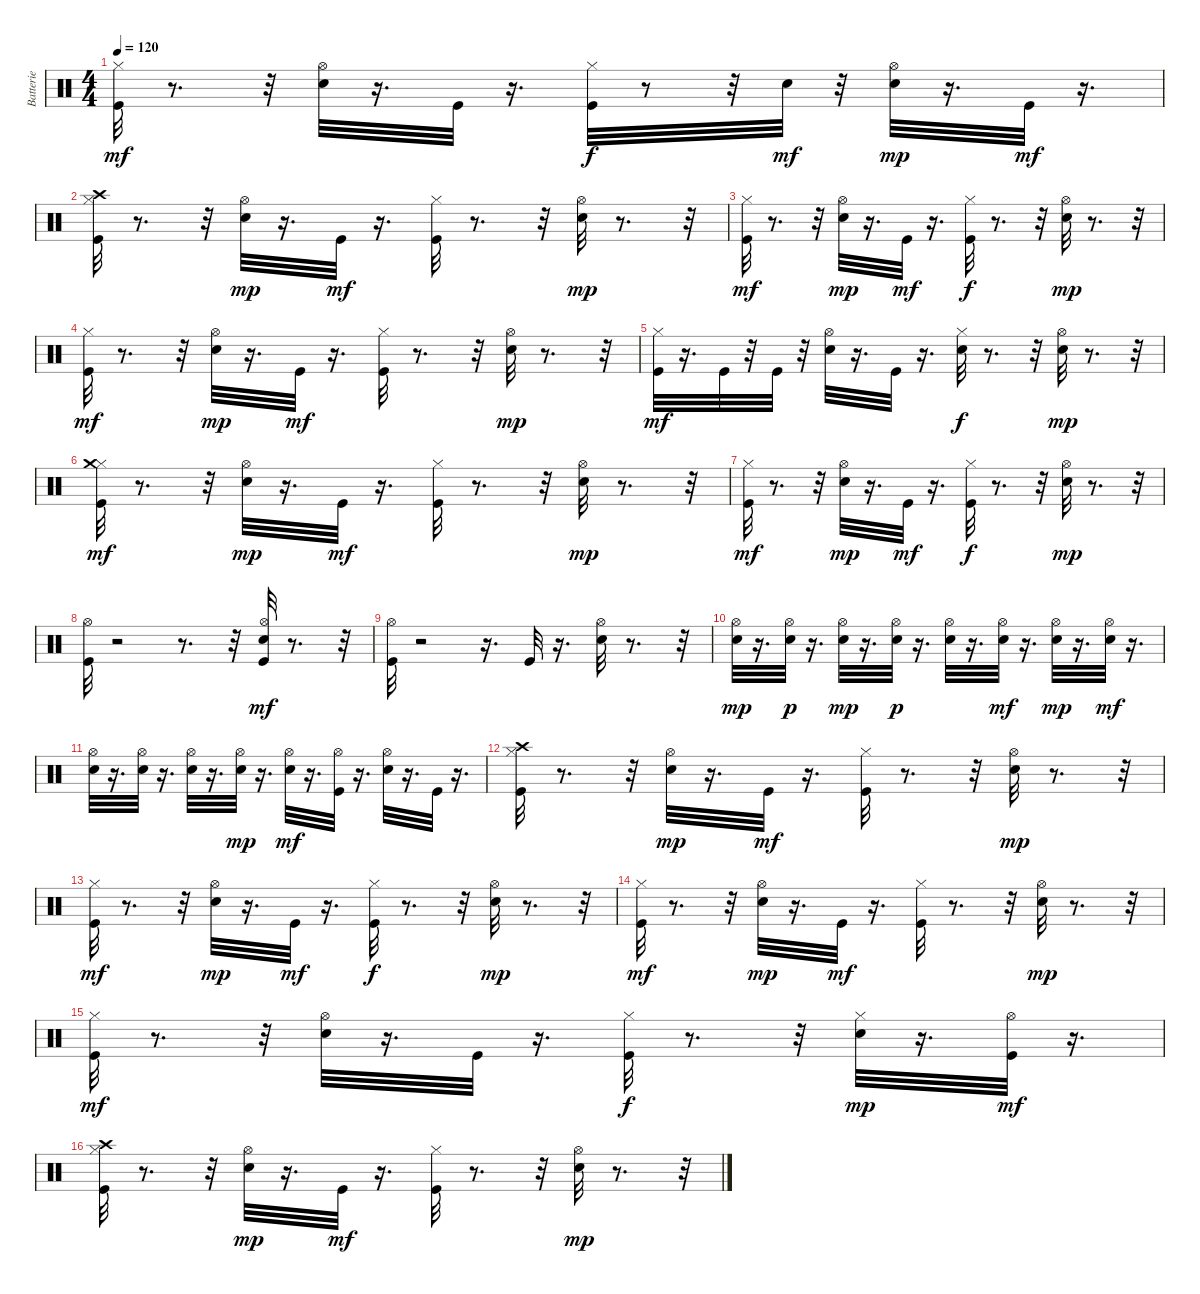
\track ("Batterie" "Batterie") {instrument percussion}
\staff {score}
\articulation defaults
\ts (4 4)
\tempo 120
\clef neutral
\ks c
("Hi-Hat (closed)" "Kick (hit)").32{dy mf} r.8{d} r.32 ("Hi-Hat (open)" "Electric Snare (hit)").32 r.16{d} "Kick (hit)".32 r.16{d} ("Hi-Hat (closed)" "Kick (hit)").32{dy f} r.8 r.32 "Electric Snare (hit)".32{dy mf} r.32 ("Hi-Hat (open)" "Electric Snare (hit)").32{dy mp} r.16{d} "Kick (hit)".32{dy mf} r.16{d} |
("Crash high (hit)" "Hi-Hat (closed)" "Kick (hit)").32 r.8{d} r.32 ("Hi-Hat (open)" "Electric Snare (hit)").32{dy mp} r.16{d} "Kick (hit)".32{dy mf} r.16{d} ("Hi-Hat (closed)" "Kick (hit)").32 r.8{d} r.32 ("Hi-Hat (open)" "Electric Snare (hit)").32{dy mp} r.8{d} r.32 |
("Hi-Hat (closed)" "Kick (hit)").32{dy mf} r.8{d} r.32 ("Hi-Hat (open)" "Electric Snare (hit)").32{dy mp} r.16{d} "Kick (hit)".32{dy mf} r.16{d} ("Hi-Hat (closed)" "Kick (hit)").32{dy f} r.8{d} r.32 ("Hi-Hat (open)" "Electric Snare (hit)").32{dy mp} r.8{d} r.32 |
("Hi-Hat (closed)" "Kick (hit)").32{dy mf} r.8{d} r.32 ("Hi-Hat (open)" "Electric Snare (hit)").32{dy mp} r.16{d} "Kick (hit)".32{dy mf} r.16{d} ("Hi-Hat (closed)" "Kick (hit)").32 r.8{d} r.32 ("Hi-Hat (open)" "Electric Snare (hit)").32{dy mp} r.8{d} r.32 |
("Hi-Hat (closed)" "Kick (hit)").32{dy mf} r.16{d} "Kick (hit)".32 r.32 "Kick (hit)".32 r.32 ("Hi-Hat (open)" "Electric Snare (hit)").32 r.16{d} "Kick (hit)".32 r.16{d} ("Hi-Hat (closed)" "Electric Snare (hit)").32{dy f} r.8{d} r.32 ("Hi-Hat (open)" "Electric Snare (hit)").32{dy mp} r.8{d} r.32 |
("Hi-Hat (closed)" "Kick (hit)" "Crash medium (hit)").32{dy mf} r.8{d} r.32 ("Hi-Hat (open)" "Electric Snare (hit)").32{dy mp} r.16{d} "Kick (hit)".32{dy mf} r.16{d} ("Hi-Hat (closed)" "Kick (hit)").32 r.8{d} r.32 ("Hi-Hat (open)" "Electric Snare (hit)").32{dy mp} r.8{d} r.32 |
("Hi-Hat (closed)" "Kick (hit)").32{dy mf} r.8{d} r.32 ("Hi-Hat (open)" "Electric Snare (hit)").32{dy mp} r.16{d} "Kick (hit)".32{dy mf} r.16{d} ("Hi-Hat (closed)" "Kick (hit)").32{dy f} r.8{d} r.32 ("Hi-Hat (open)" "Electric Snare (hit)").32{dy mp} r.8{d} r.32 |
("Hi-Hat (open)" "Kick (hit)").32 r.2 r.8{d} r.32 ("Hi-Hat (open)" "Electric Snare (hit)" "Kick (hit)").32{dy mf} r.8{d} r.32 |
("Hi-Hat (open)" "Kick (hit)").32 r.2 r.16{d} "Kick (hit)".32 r.16{d} ("Hi-Hat (open)" "Electric Snare (hit)").32 r.8{d} r.32 |
("Hi-Hat (open)" "Electric Snare (hit)").32{dy mp} r.16{d} ("Hi-Hat (open)" "Electric Snare (hit)").32{dy p} r.16{d} ("Hi-Hat (open)" "Electric Snare (hit)").32{dy mp} r.16{d} ("Hi-Hat (open)" "Electric Snare (hit)").32{dy p} r.16{d} ("Hi-Hat (open)" "Electric Snare (hit)").32 r.16{d} ("Hi-Hat (open)" "Electric Snare (hit)").32{dy mf} r.16{d} ("Hi-Hat (open)" "Electric Snare (hit)").32{dy mp} r.16{d} ("Hi-Hat (open)" "Electric Snare (hit)").32{dy mf} r.16{d} |
("Hi-Hat (open)" "Electric Snare (hit)").32 r.16{d} ("Hi-Hat (open)" "Electric Snare (hit)").32 r.16{d} ("Hi-Hat (open)" "Electric Snare (hit)").32 r.16{d} ("Hi-Hat (open)" "Electric Snare (hit)").32{dy mp} r.16{d} ("Hi-Hat (open)" "Electric Snare (hit)").32{dy mf} r.16{d} ("Hi-Hat (open)" "Kick (hit)").32 r.16{d} ("Hi-Hat (open)" "Electric Snare (hit)").32 r.16{d} "Kick (hit)".32 r.16{d} |
("Crash high (hit)" "Hi-Hat (closed)" "Kick (hit)").32 r.8{d} r.32 ("Hi-Hat (open)" "Electric Snare (hit)").32{dy mp} r.16{d} "Kick (hit)".32{dy mf} r.16{d} ("Hi-Hat (closed)" "Kick (hit)").32 r.8{d} r.32 ("Hi-Hat (open)" "Electric Snare (hit)").32{dy mp} r.8{d} r.32 |
("Hi-Hat (closed)" "Kick (hit)").32{dy mf} r.8{d} r.32 ("Hi-Hat (open)" "Electric Snare (hit)").32{dy mp} r.16{d} "Kick (hit)".32{dy mf} r.16{d} ("Hi-Hat (closed)" "Kick (hit)").32{dy f} r.8{d} r.32 ("Hi-Hat (open)" "Electric Snare (hit)").32{dy mp} r.8{d} r.32 |
("Hi-Hat (closed)" "Kick (hit)").32{dy mf} r.8{d} r.32 ("Hi-Hat (open)" "Electric Snare (hit)").32{dy mp} r.16{d} "Kick (hit)".32{dy mf} r.16{d} ("Hi-Hat (closed)" "Kick (hit)").32 r.8{d} r.32 ("Hi-Hat (open)" "Electric Snare (hit)").32{dy mp} r.8{d} r.32 |
("Hi-Hat (closed)" "Kick (hit)").32{dy mf} r.8{d} r.32 ("Hi-Hat (open)" "Electric Snare (hit)").32 r.16{d} "Kick (hit)".32 r.16{d} ("Hi-Hat (closed)" "Kick (hit)").32{dy f} r.8{d} r.32 ("Hi-Hat (closed)" "Electric Snare (hit)").32{dy mp} r.16{d} ("Hi-Hat (open)" "Kick (hit)").32{dy mf} r.16{d} |
("Crash high (hit)" "Hi-Hat (closed)" "Kick (hit)").32 r.8{d} r.32 ("Hi-Hat (open)" "Electric Snare (hit)").32{dy mp} r.16{d} "Kick (hit)".32{dy mf} r.16{d} ("Hi-Hat (closed)" "Kick (hit)").32 r.8{d} r.32 ("Hi-Hat (open)" "Electric Snare (hit)").32{dy mp} r.8{d} r.32
